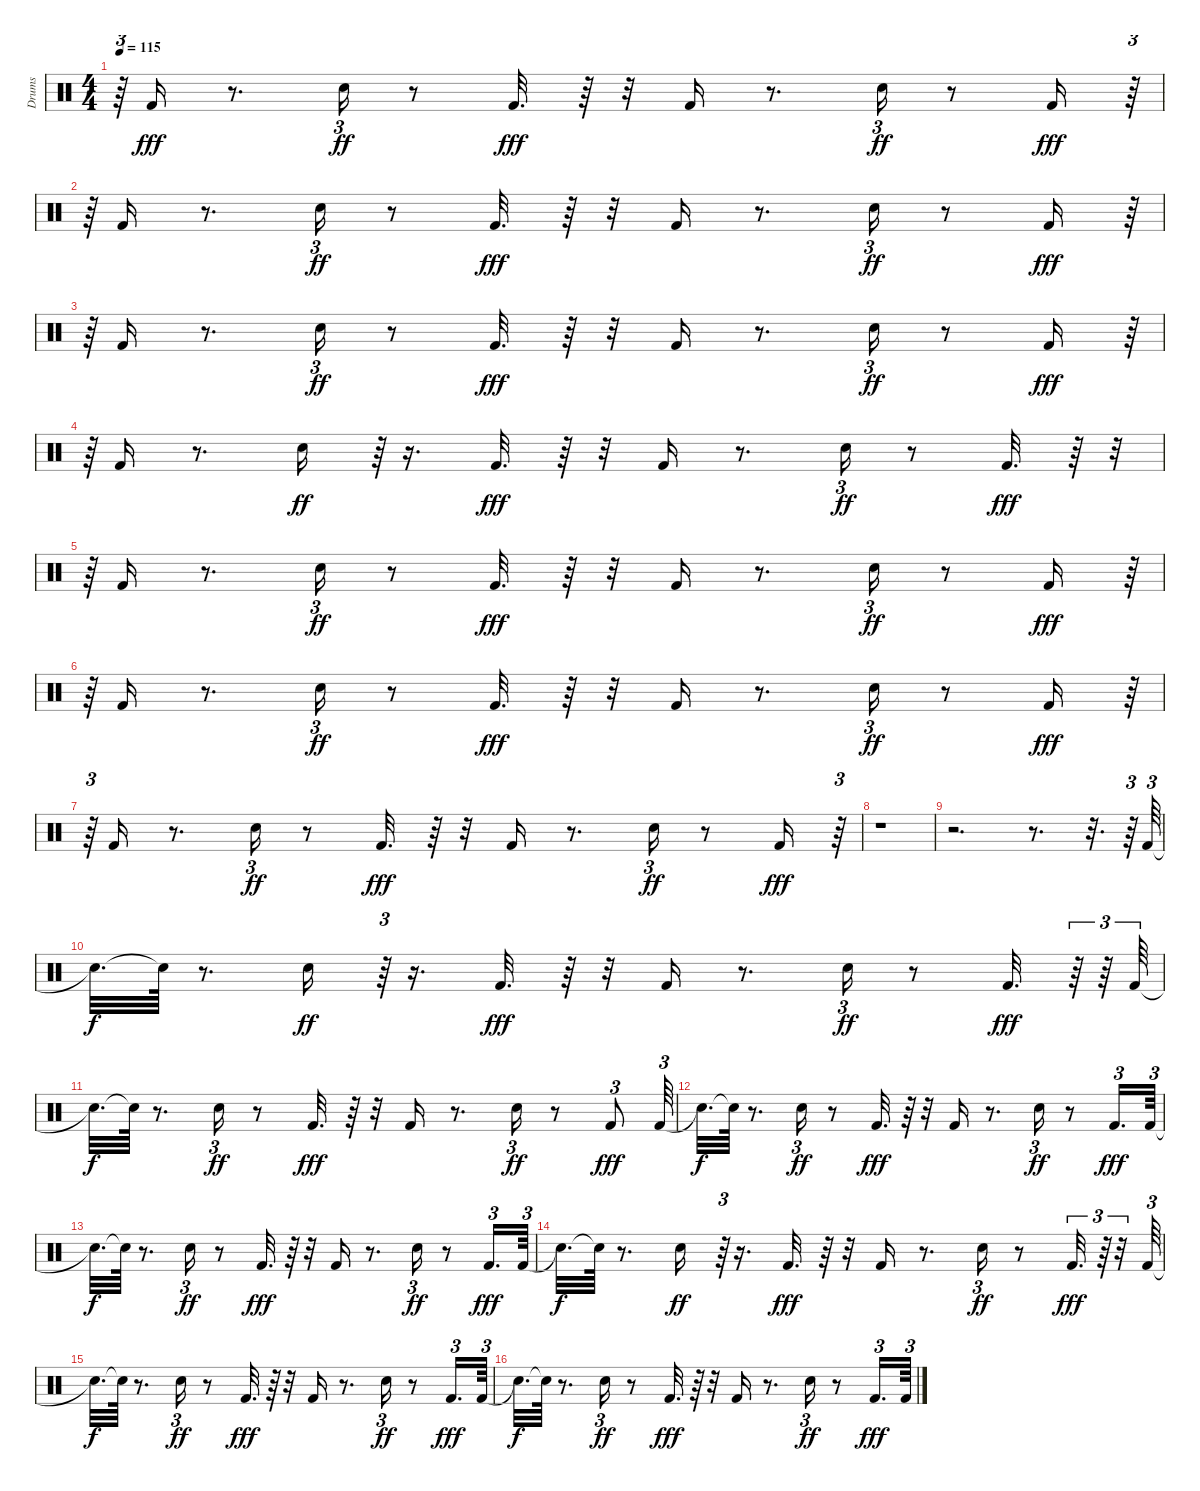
\track ("Drums" "Drums") {instrument percussion}
\staff {score}
\articulation defaults
\ts (4 4)
\tempo 115
\clef neutral
\ks c
r.64{tu (3 2) dy fff} "Kick (hit) 2".16 r.8{d} "Electric Snare (hit)".16{tu (3 2) dy ff} r.8 "Kick (hit) 2".32{d dy fff} r.64 r.32 "Kick (hit) 2".16 r.8{d} "Electric Snare (hit)".16{tu (3 2) dy ff} r.8 "Kick (hit) 2".16{dy fff} r.64{tu (3 2)} |
r.64{tu (3 2)} "Kick (hit) 2".16 r.8{d} "Electric Snare (hit)".16{tu (3 2) dy ff} r.8 "Kick (hit) 2".32{d dy fff} r.64 r.32 "Kick (hit) 2".16 r.8{d} "Electric Snare (hit)".16{tu (3 2) dy ff} r.8 "Kick (hit) 2".16{dy fff} r.64{tu (3 2)} |
r.64{tu (3 2)} "Kick (hit) 2".16 r.8{d} "Electric Snare (hit)".16{tu (3 2) dy ff} r.8 "Kick (hit) 2".32{d dy fff} r.64 r.32 "Kick (hit) 2".16 r.8{d} "Electric Snare (hit)".16{tu (3 2) dy ff} r.8 "Kick (hit) 2".16{dy fff} r.64{tu (3 2)} |
r.64{tu (3 2)} "Kick (hit) 2".16 r.8{d} "Electric Snare (hit)".16{dy ff} r.64{tu (3 2)} r.16{d} "Kick (hit) 2".32{d dy fff} r.64 r.32 "Kick (hit) 2".16 r.8{d} "Electric Snare (hit)".16{tu (3 2) dy ff} r.8 "Kick (hit) 2".32{d dy fff} r.64 r.32{tu (3 2)} |
r.64{tu (3 2)} "Kick (hit) 2".16 r.8{d} "Electric Snare (hit)".16{tu (3 2) dy ff} r.8 "Kick (hit) 2".32{d dy fff} r.64 r.32 "Kick (hit) 2".16 r.8{d} "Electric Snare (hit)".16{tu (3 2) dy ff} r.8 "Kick (hit) 2".16{dy fff} r.64{tu (3 2)} |
r.64{tu (3 2)} "Kick (hit) 2".16 r.8{d} "Electric Snare (hit)".16{tu (3 2) dy ff} r.8 "Kick (hit) 2".32{d dy fff} r.64 r.32 "Kick (hit) 2".16 r.8{d} "Electric Snare (hit)".16{tu (3 2) dy ff} r.8 "Kick (hit) 2".16{dy fff} r.64{tu (3 2)} |
r.64{tu (3 2)} "Kick (hit) 2".16 r.8{d} "Electric Snare (hit)".16{tu (3 2) dy ff} r.8 "Kick (hit) 2".32{d dy fff} r.64 r.32 "Kick (hit) 2".16 r.8{d} "Electric Snare (hit)".16{tu (3 2) dy ff} r.8 "Kick (hit) 2".16{dy fff} r.64{tu (3 2)} |
r.1 |
r.2{d} r.8{d} r.32{d} r.64{tu (3 2)} "Kick (hit) 2".64{tu (3 2)} |
"Snare (hit)"{t}.32{d dy f} "Snare (hit)"{t}.64 r.8{d} "Electric Snare (hit)".16{dy ff} r.64{tu (3 2)} r.16{d} "Kick (hit) 2".32{d dy fff} r.64 r.32 "Kick (hit) 2".16 r.8{d} "Electric Snare (hit)".16{tu (3 2) dy ff} r.8 "Kick (hit) 2".32{d dy fff} r.64{tu (3 2)} r.64{tu (3 2)} "Kick (hit) 2".64{tu (3 2)} |
"Snare (hit)"{t}.32{d dy f} "Snare (hit)"{t}.64 r.8{d} "Electric Snare (hit)".16{tu (3 2) dy ff} r.8 "Kick (hit) 2".32{d dy fff} r.64 r.32 "Kick (hit) 2".16 r.8{d} "Electric Snare (hit)".16{tu (3 2) dy ff} r.8 "Kick (hit) 2".8{tu (3 2) dy fff} "Kick (hit) 2".64{tu (3 2)} |
"Snare (hit)"{t}.32{d dy f} "Snare (hit)"{t}.64 r.8{d} "Electric Snare (hit)".16{tu (3 2) dy ff} r.8 "Kick (hit) 2".32{d dy fff} r.64 r.32 "Kick (hit) 2".16 r.8{d} "Electric Snare (hit)".16{tu (3 2) dy ff} r.8 "Kick (hit) 2".16{d tu (3 2) dy fff} "Kick (hit) 2".64{tu (3 2)} |
"Snare (hit)"{t}.32{d dy f} "Snare (hit)"{t}.64 r.8{d} "Electric Snare (hit)".16{tu (3 2) dy ff} r.8 "Kick (hit) 2".32{d dy fff} r.64 r.32 "Kick (hit) 2".16 r.8{d} "Electric Snare (hit)".16{tu (3 2) dy ff} r.8 "Kick (hit) 2".16{d tu (3 2) dy fff} "Kick (hit) 2".64{tu (3 2)} |
"Snare (hit)"{t}.32{d dy f} "Snare (hit)"{t}.64 r.8{d} "Electric Snare (hit)".16{dy ff} r.64{tu (3 2)} r.16{d} "Kick (hit) 2".32{d dy fff} r.64 r.32 "Kick (hit) 2".16 r.8{d} "Electric Snare (hit)".16{tu (3 2) dy ff} r.8 "Kick (hit) 2".32{d tu (3 2) dy fff} r.64{tu (3 2)} r.32{tu (3 2)} "Kick (hit) 2".64{tu (3 2)} |
"Snare (hit)"{t}.32{d dy f} "Snare (hit)"{t}.64 r.8{d} "Electric Snare (hit)".16{tu (3 2) dy ff} r.8 "Kick (hit) 2".32{d dy fff} r.64 r.32 "Kick (hit) 2".16 r.8{d} "Electric Snare (hit)".16{tu (3 2) dy ff} r.8 "Kick (hit) 2".16{d tu (3 2) dy fff} "Kick (hit) 2".64{tu (3 2)} |
"Snare (hit)"{t}.32{d dy f} "Snare (hit)"{t}.64 r.8{d} "Electric Snare (hit)".16{tu (3 2) dy ff} r.8 "Kick (hit) 2".32{d dy fff} r.64 r.32 "Kick (hit) 2".16 r.8{d} "Electric Snare (hit)".16{tu (3 2) dy ff} r.8 "Kick (hit) 2".16{d tu (3 2) dy fff} "Kick (hit) 2".64{tu (3 2)}
